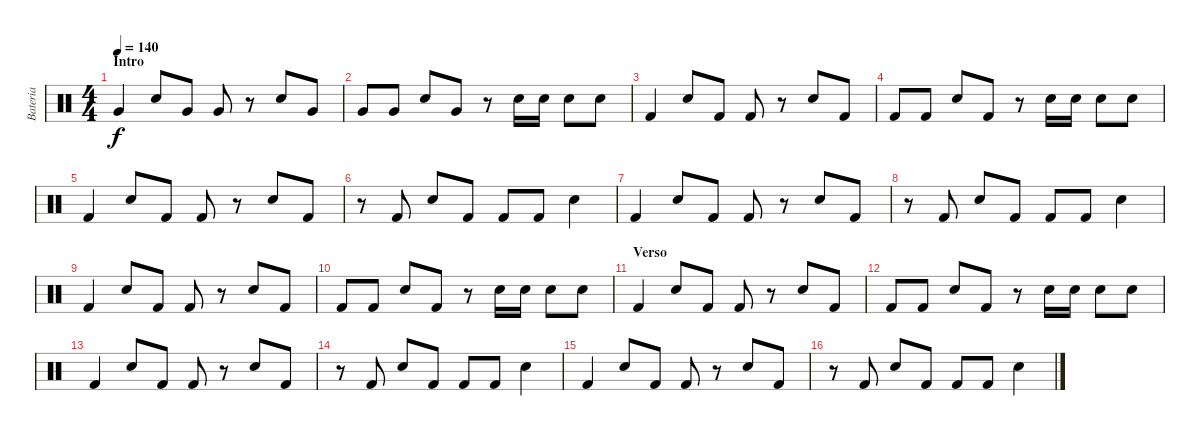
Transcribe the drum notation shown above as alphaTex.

\track ("Bateria" "Bateria") {instrument percussion}
\staff {score}
\articulation defaults
\ts (4 4)
\section ("" "Intro")
\tempo 140
\clef neutral
\ks c "Very Low Tom (hit)".4{dy f} "Snare (hit) 2".8 "Very Low Tom (hit)".8 "Very Low Tom (hit)".8
r.8 "Snare (hit) 2".8 "Very Low Tom (hit)".8 |
"Very Low Tom (hit)".8 "Very Low Tom (hit)".8 "Snare (hit) 2".8 "Very Low Tom (hit)".8 r.8 "Snare (hit) 2".16 "Snare (hit) 2".16 "Snare (hit) 2".8 "Snare (hit) 2".8 |
"Kick (hit) 2".4 "Snare (hit) 2".8 "Kick (hit) 2".8 "Kick (hit) 2".8 r.8 "Snare (hit) 2".8 "Kick (hit) 2".8 |
"Kick (hit) 2".8 "Kick (hit) 2".8 "Snare (hit) 2".8 "Kick (hit) 2".8 r.8 "Snare (hit) 2".16 "Snare (hit) 2".16 "Snare (hit) 2".8 "Snare (hit) 2".8 |
"Kick (hit) 2".4 "Snare (hit) 2".8 "Kick (hit) 2".8 "Kick (hit) 2".8 r.8 "Snare (hit) 2".8 "Kick (hit) 2".8 |
r.8 "Kick (hit) 2".8 "Snare (hit) 2".8 "Kick (hit) 2".8 "Kick (hit) 2".8 "Kick (hit) 2".8 "Snare (hit) 2".4 |
"Kick (hit) 2".4 "Snare (hit) 2".8 "Kick (hit) 2".8 "Kick (hit) 2".8 r.8 "Snare (hit) 2".8 "Kick (hit) 2".8 |
r.8 "Kick (hit) 2".8 "Snare (hit) 2".8 "Kick (hit) 2".8 "Kick (hit) 2".8 "Kick (hit) 2".8 "Snare (hit) 2".4 |
"Kick (hit) 2".4 "Snare (hit) 2".8 "Kick (hit) 2".8 "Kick (hit) 2".8 r.8 "Snare (hit) 2".8 "Kick (hit) 2".8 |
"Kick (hit) 2".8 "Kick (hit) 2".8 "Snare (hit) 2".8 "Kick (hit) 2".8 r.8 "Snare (hit) 2".16 "Snare (hit) 2".16 "Snare (hit) 2".8 "Snare (hit) 2".8 |
\section ("" "Verso")
"Kick (hit) 2".4 "Snare (hit) 2".8 "Kick (hit) 2".8 "Kick (hit) 2".8 r.8 "Snare (hit) 2".8 "Kick (hit) 2".8 |
"Kick (hit) 2".8 "Kick (hit) 2".8 "Snare (hit) 2".8 "Kick (hit) 2".8 r.8 "Snare (hit) 2".16 "Snare (hit) 2".16 "Snare (hit) 2".8 "Snare (hit) 2".8 |
"Kick (hit) 2".4 "Snare (hit) 2".8 "Kick (hit) 2".8 "Kick (hit) 2".8 r.8 "Snare (hit) 2".8 "Kick (hit) 2".8 |
r.8 "Kick (hit) 2".8 "Snare (hit) 2".8 "Kick (hit) 2".8 "Kick (hit) 2".8 "Kick (hit) 2".8 "Snare (hit) 2".4 |
"Kick (hit) 2".4 "Snare (hit) 2".8 "Kick (hit) 2".8 "Kick (hit) 2".8 r.8 "Snare (hit) 2".8 "Kick (hit) 2".8 |
r.8 "Kick (hit) 2".8 "Snare (hit) 2".8 "Kick (hit) 2".8 "Kick (hit) 2".8 "Kick (hit) 2".8 "Snare (hit) 2".4
